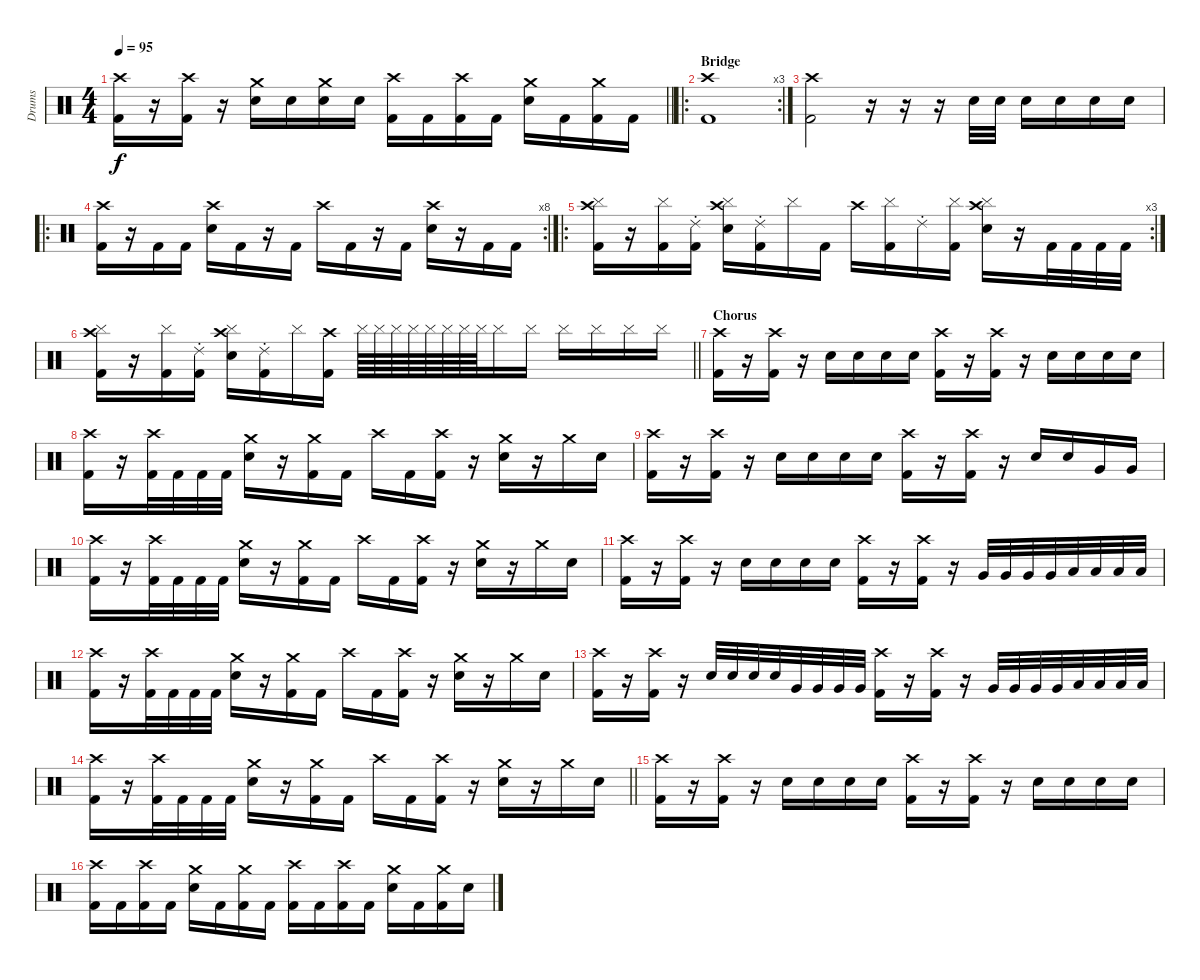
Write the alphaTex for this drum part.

\track ("Drums" "Drums") {instrument percussion}
\staff {score}
\articulation defaults
\ts (4 4)
\tempo 95
\clef neutral
\barLineRight lightlight
\ks c
("Crash high (hit)" "Kick (hit) 2").16{dy f} r.16 ("Crash high (hit)" "Kick (hit) 2").16 r.16 ("Crash medium (hit)" "Electric Snare (hit)").16 "Electric Snare (hit)".16 ("Crash medium (hit)" "Electric Snare (hit)").16 "Electric Snare (hit)".16 ("Crash high (hit)" "Kick (hit) 2").16 "Kick (hit) 2".16 ("Crash high (hit)" "Kick (hit) 2").16 "Kick (hit) 2".16 ("Crash medium (hit)" "Electric Snare (hit)").16 "Kick (hit) 2".16 ("Crash medium (hit)" "Kick (hit) 2").16 "Kick (hit) 2".16 |
\ro
\rc 3
\section ("" "Bridge")
("Crash high (hit)" "Kick (hit) 2").1 |
("Crash high (hit)" "Kick (hit) 2").2 r.16 r.16 r.16 "Electric Snare (hit)".32 "Electric Snare (hit)".32 "Electric Snare (hit)".16 "Electric Snare (hit)".16 "Electric Snare (hit)".16 "Electric Snare (hit)".16 |
\ro
\rc 8
("Crash high (hit)" "Kick (hit) 2").16 r.16 "Kick (hit) 2".16 "Kick (hit) 2".16 ("Crash high (hit)" "Electric Snare (hit)").16 "Kick (hit) 2".16 r.16 "Kick (hit) 2".16 "Crash high (hit)".16 "Kick (hit) 2".16 r.16 "Kick (hit) 2".16 ("Crash high (hit)" "Electric Snare (hit)").16 r.16 "Kick (hit) 2".16 "Kick (hit) 2".16 |
\ro
\rc 3
("Crash high (hit)" "Cymbal (hit)" "Kick (hit) 2").16 r.16 ("Cymbal (hit)" "Kick (hit) 2").16 ("Ride (choke) 2" "Kick (hit) 2").16 ("Crash high (hit)" "Cymbal (hit)" "Electric Snare (hit)").16 ("Ride (choke) 2" "Kick (hit) 2").16 "Cymbal (hit)".16 "Kick (hit) 2".16 "Crash high (hit)".16 ("Cymbal (hit)" "Kick (hit) 2").16 "Ride (choke) 2".16 ("Cymbal (hit)" "Kick (hit) 2").16 ("Crash high (hit)" "Cymbal (hit)" "Electric Snare (hit)").16 r.16 "Kick (hit) 2".32 "Kick (hit) 2".32 "Kick (hit) 2".32 "Kick (hit) 2".32 |
\barLineRight lightlight
("Crash high (hit)" "Cymbal (hit)" "Kick (hit) 2").16 r.16 ("Cymbal (hit)" "Kick (hit) 2").16 ("Ride (choke) 2" "Kick (hit) 2").16 ("Crash high (hit)" "Cymbal (hit)" "Electric Snare (hit)").16 ("Ride (choke) 2" "Kick (hit) 2").16 "Cymbal (hit)".16 ("Crash high (hit)" "Kick (hit) 2").16 "Cymbal (hit)".64 "Cymbal (hit)".64 "Cymbal (hit)".64 "Cymbal (hit)".64 "Cymbal (hit)".64 "Cymbal (hit)".64 "Cymbal (hit)".64 "Cymbal (hit)".64 "Cymbal (hit)".16 "Cymbal (hit)".16 "Cymbal (hit)".16 "Cymbal (hit)".16 "Cymbal (hit)".16 "Cymbal (hit)".16 |
\section ("" "Chorus")
("Crash high (hit)" "Kick (hit) 2").16 r.16 ("Crash high (hit)" "Kick (hit) 2").16 r.16 "Electric Snare (hit)".16 "Electric Snare (hit)".16 "Electric Snare (hit)".16 "Electric Snare (hit)".16 ("Crash high (hit)" "Kick (hit) 2").16 r.16 ("Crash high (hit)" "Kick (hit) 2").16 r.16 "Electric Snare (hit)".16 "Electric Snare (hit)".16 "Electric Snare (hit)".16 "Electric Snare (hit)".16 |
("Crash high (hit)" "Kick (hit) 2").16 r.16 ("Crash high (hit)" "Kick (hit) 2").32 "Kick (hit) 2".32 "Kick (hit) 2".32 "Kick (hit) 2".32 ("Crash medium (hit)" "Electric Snare (hit)").16 r.16 ("Crash medium (hit)" "Kick (hit) 2").16 "Kick (hit) 2".16 "Crash high (hit)".16 "Kick (hit) 2".16 ("Crash high (hit)" "Kick (hit) 2").16 r.16 ("Crash medium (hit)" "Electric Snare (hit)").16 r.16 "Crash medium (hit)".16 "Electric Snare (hit)".16 |
("Crash high (hit)" "Kick (hit) 2").16 r.16 ("Crash high (hit)" "Kick (hit) 2").16 r.16 "Electric Snare (hit)".16 "Electric Snare (hit)".16 "Electric Snare (hit)".16 "Electric Snare (hit)".16 ("Crash high (hit)" "Kick (hit) 2").16 r.16 ("Crash high (hit)" "Kick (hit) 2").16 r.16 "Electric Snare (hit)".16 "Electric Snare (hit)".16 "Very Low Tom (hit)".16 "Very Low Tom (hit)".16 |
("Crash high (hit)" "Kick (hit) 2").16 r.16 ("Crash high (hit)" "Kick (hit) 2").32 "Kick (hit) 2".32 "Kick (hit) 2".32 "Kick (hit) 2".32 ("Crash medium (hit)" "Electric Snare (hit)").16 r.16 ("Crash medium (hit)" "Kick (hit) 2").16 "Kick (hit) 2".16 "Crash high (hit)".16 "Kick (hit) 2".16 ("Crash high (hit)" "Kick (hit) 2").16 r.16 ("Crash medium (hit)" "Electric Snare (hit)").16 r.16 "Crash medium (hit)".16 "Electric Snare (hit)".16 |
("Crash high (hit)" "Kick (hit) 2").16 r.16 ("Crash high (hit)" "Kick (hit) 2").16 r.16 "Electric Snare (hit)".16 "Electric Snare (hit)".16 "Electric Snare (hit)".16 "Electric Snare (hit)".16 ("Crash high (hit)" "Kick (hit) 2").16 r.16 ("Crash high (hit)" "Kick (hit) 2").16 r.16 "Very Low Tom (hit)".32 "Very Low Tom (hit)".32 "Very Low Tom (hit)".32 "Very Low Tom (hit)".32 "Low Floor Tom (hit)".32 "Low Floor Tom (hit)".32 "Low Floor Tom (hit)".32 "Low Floor Tom (hit)".32 |
("Crash high (hit)" "Kick (hit) 2").16 r.16 ("Crash high (hit)" "Kick (hit) 2").32 "Kick (hit) 2".32 "Kick (hit) 2".32 "Kick (hit) 2".32 ("Crash medium (hit)" "Electric Snare (hit)").16 r.16 ("Crash medium (hit)" "Kick (hit) 2").16 "Kick (hit) 2".16 "Crash high (hit)".16 "Kick (hit) 2".16 ("Crash high (hit)" "Kick (hit) 2").16 r.16 ("Crash medium (hit)" "Electric Snare (hit)").16 r.16 "Crash medium (hit)".16 "Electric Snare (hit)".16 |
("Crash high (hit)" "Kick (hit) 2").16 r.16 ("Crash high (hit)" "Kick (hit) 2").16 r.16 "Electric Snare (hit)".32 "Electric Snare (hit)".32 "Electric Snare (hit)".32 "Electric Snare (hit)".32 "Very Low Tom (hit)".32 "Very Low Tom (hit)".32 "Very Low Tom (hit)".32 "Very Low Tom (hit)".32 ("Crash high (hit)" "Kick (hit) 2").16 r.16 ("Crash high (hit)" "Kick (hit) 2").16 r.16 "Very Low Tom (hit)".32 "Very Low Tom (hit)".32 "Very Low Tom (hit)".32 "Very Low Tom (hit)".32 "Low Floor Tom (hit)".32 "Low Floor Tom (hit)".32 "Low Floor Tom (hit)".32 "Low Floor Tom (hit)".32 |
\barLineRight lightlight
("Crash high (hit)" "Kick (hit) 2").16 r.16 ("Crash high (hit)" "Kick (hit) 2").32 "Kick (hit) 2".32 "Kick (hit) 2".32 "Kick (hit) 2".32 ("Crash medium (hit)" "Electric Snare (hit)").16 r.16 ("Crash medium (hit)" "Kick (hit) 2").16 "Kick (hit) 2".16 "Crash high (hit)".16 "Kick (hit) 2".16 ("Crash high (hit)" "Kick (hit) 2").16 r.16 ("Crash medium (hit)" "Electric Snare (hit)").16 r.16 "Crash medium (hit)".16 "Electric Snare (hit)".16 |
("Crash high (hit)" "Kick (hit) 2").16 r.16 ("Crash high (hit)" "Kick (hit) 2").16 r.16 "Electric Snare (hit)".16 "Electric Snare (hit)".16 "Electric Snare (hit)".16 "Electric Snare (hit)".16 ("Crash high (hit)" "Kick (hit) 2").16 r.16 ("Crash high (hit)" "Kick (hit) 2").16 r.16 "Electric Snare (hit)".16 "Electric Snare (hit)".16 "Electric Snare (hit)".16 "Electric Snare (hit)".16 |
("Crash high (hit)" "Kick (hit) 2").16 "Kick (hit) 2".16 ("Crash high (hit)" "Kick (hit) 2").16 "Kick (hit) 2".16 ("Crash medium (hit)" "Electric Snare (hit)").16 "Kick (hit) 2".16 ("Crash medium (hit)" "Kick (hit) 2").16 "Kick (hit) 2".16 ("Crash high (hit)" "Kick (hit) 2").16 "Kick (hit) 2".16 ("Crash high (hit)" "Kick (hit) 2").16 "Kick (hit) 2".16 ("Crash medium (hit)" "Electric Snare (hit)").16 "Kick (hit) 2".16 ("Crash medium (hit)" "Kick (hit) 2").16 "Electric Snare (hit)".16
